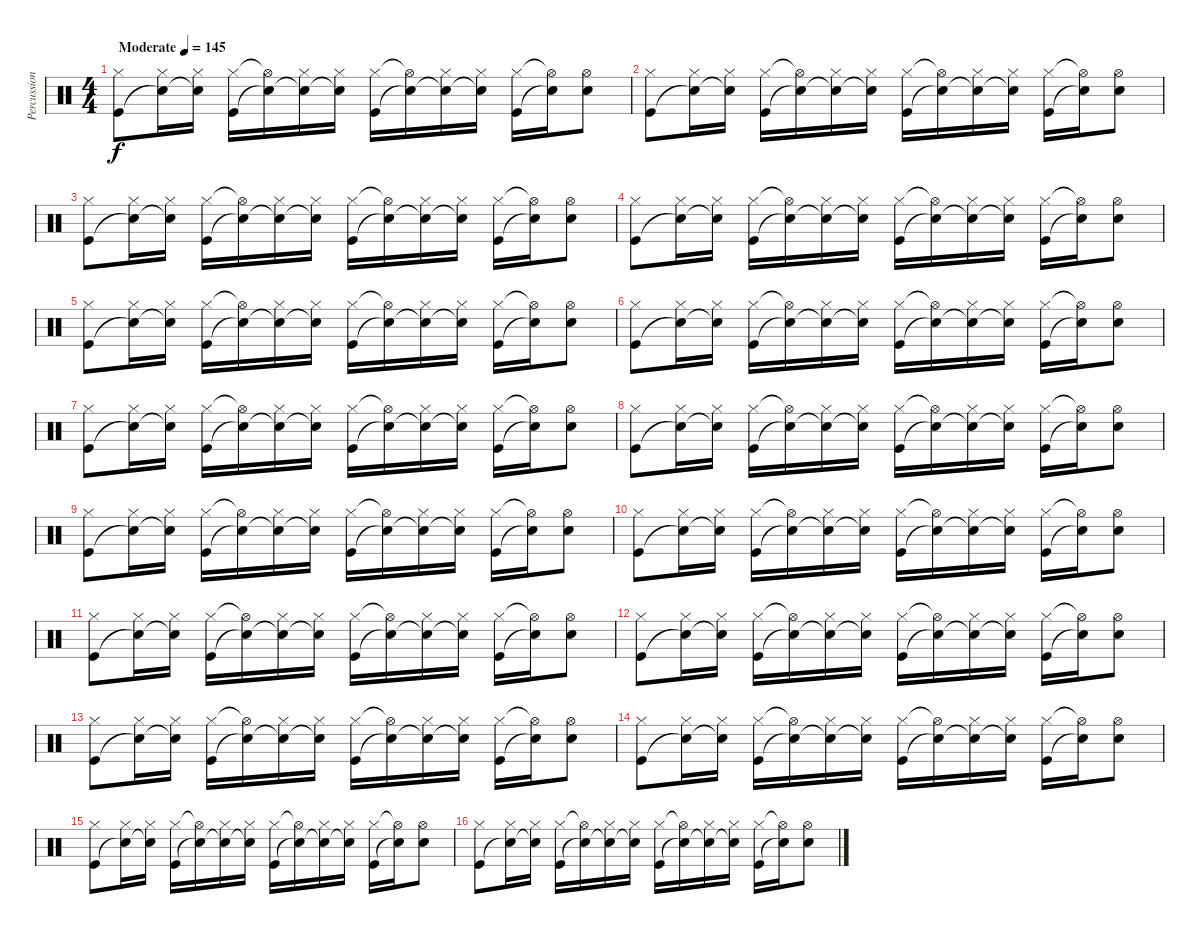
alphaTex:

\track ("Percussion" "Percussion") {instrument percussion}
\staff {score}
\articulation defaults
\ts (4 4)
\tempo (145 "Moderate")
\clef neutral
\ks c
("Hi-Hat (closed)" "Kick (hit)").8{dy f} ("Hi-Hat (closed)" "Snare (hit)"{t}).16 ("Hi-Hat (closed)" "Snare (hit)"{t}).16 ("Hi-Hat (closed)" "Kick (hit)").16 ("Hi-Hat (open)"{t} "Snare (hit)"{t}).16 ("Hi-Hat (closed)" "Snare (hit)"{t}).16 ("Hi-Hat (closed)" "Snare (hit)"{t}).16 ("Hi-Hat (closed)" "Kick (hit)").16 ("Hi-Hat (open)"{t} "Snare (hit)"{t}).16 ("Hi-Hat (closed)" "Snare (hit)"{t}).16 ("Hi-Hat (closed)" "Snare (hit)"{t}).16 ("Hi-Hat (closed)" "Kick (hit)").16 ("Hi-Hat (open)"{t} "Snare (hit)"{t}).16 ("Hi-Hat (open)" "Electric Snare (hit)").8 |
("Hi-Hat (closed)" "Kick (hit)").8 ("Hi-Hat (closed)" "Snare (hit)"{t}).16 ("Hi-Hat (closed)" "Snare (hit)"{t}).16 ("Hi-Hat (closed)" "Kick (hit)").16 ("Hi-Hat (open)"{t} "Snare (hit)"{t}).16 ("Hi-Hat (closed)" "Snare (hit)"{t}).16 ("Hi-Hat (closed)" "Snare (hit)"{t}).16 ("Hi-Hat (closed)" "Kick (hit)").16 ("Hi-Hat (open)"{t} "Snare (hit)"{t}).16 ("Hi-Hat (closed)" "Snare (hit)"{t}).16 ("Hi-Hat (closed)" "Snare (hit)"{t}).16 ("Hi-Hat (closed)" "Kick (hit)").16 ("Hi-Hat (open)"{t} "Snare (hit)"{t}).16 ("Hi-Hat (open)" "Electric Snare (hit)").8 |
("Hi-Hat (closed)" "Kick (hit)").8 ("Hi-Hat (closed)" "Snare (hit)"{t}).16 ("Hi-Hat (closed)" "Snare (hit)"{t}).16 ("Hi-Hat (closed)" "Kick (hit)").16 ("Hi-Hat (open)"{t} "Snare (hit)"{t}).16 ("Hi-Hat (closed)" "Snare (hit)"{t}).16 ("Hi-Hat (closed)" "Snare (hit)"{t}).16 ("Hi-Hat (closed)" "Kick (hit)").16 ("Hi-Hat (open)"{t} "Snare (hit)"{t}).16 ("Hi-Hat (closed)" "Snare (hit)"{t}).16 ("Hi-Hat (closed)" "Snare (hit)"{t}).16 ("Hi-Hat (closed)" "Kick (hit)").16 ("Hi-Hat (open)"{t} "Snare (hit)"{t}).16 ("Hi-Hat (open)" "Electric Snare (hit)").8 |
("Hi-Hat (closed)" "Kick (hit)").8 ("Hi-Hat (closed)" "Snare (hit)"{t}).16 ("Hi-Hat (closed)" "Snare (hit)"{t}).16 ("Hi-Hat (closed)" "Kick (hit)").16 ("Hi-Hat (open)"{t} "Snare (hit)"{t}).16 ("Hi-Hat (closed)" "Snare (hit)"{t}).16 ("Hi-Hat (closed)" "Snare (hit)"{t}).16 ("Hi-Hat (closed)" "Kick (hit)").16 ("Hi-Hat (open)"{t} "Snare (hit)"{t}).16 ("Hi-Hat (closed)" "Snare (hit)"{t}).16 ("Hi-Hat (closed)" "Snare (hit)"{t}).16 ("Hi-Hat (closed)" "Kick (hit)").16 ("Hi-Hat (open)"{t} "Snare (hit)"{t}).16 ("Hi-Hat (open)" "Electric Snare (hit)").8 |
("Hi-Hat (closed)" "Kick (hit)").8 ("Hi-Hat (closed)" "Snare (hit)"{t}).16 ("Hi-Hat (closed)" "Snare (hit)"{t}).16 ("Hi-Hat (closed)" "Kick (hit)").16 ("Hi-Hat (open)"{t} "Snare (hit)"{t}).16 ("Hi-Hat (closed)" "Snare (hit)"{t}).16 ("Hi-Hat (closed)" "Snare (hit)"{t}).16 ("Hi-Hat (closed)" "Kick (hit)").16 ("Hi-Hat (open)"{t} "Snare (hit)"{t}).16 ("Hi-Hat (closed)" "Snare (hit)"{t}).16 ("Hi-Hat (closed)" "Snare (hit)"{t}).16 ("Hi-Hat (closed)" "Kick (hit)").16 ("Hi-Hat (open)"{t} "Snare (hit)"{t}).16 ("Hi-Hat (open)" "Electric Snare (hit)").8 |
("Hi-Hat (closed)" "Kick (hit)").8 ("Hi-Hat (closed)" "Snare (hit)"{t}).16 ("Hi-Hat (closed)" "Snare (hit)"{t}).16 ("Hi-Hat (closed)" "Kick (hit)").16 ("Hi-Hat (open)"{t} "Snare (hit)"{t}).16 ("Hi-Hat (closed)" "Snare (hit)"{t}).16 ("Hi-Hat (closed)" "Snare (hit)"{t}).16 ("Hi-Hat (closed)" "Kick (hit)").16 ("Hi-Hat (open)"{t} "Snare (hit)"{t}).16 ("Hi-Hat (closed)" "Snare (hit)"{t}).16 ("Hi-Hat (closed)" "Snare (hit)"{t}).16 ("Hi-Hat (closed)" "Kick (hit)").16 ("Hi-Hat (open)"{t} "Snare (hit)"{t}).16 ("Hi-Hat (open)" "Electric Snare (hit)").8 |
("Hi-Hat (closed)" "Kick (hit)").8 ("Hi-Hat (closed)" "Snare (hit)"{t}).16 ("Hi-Hat (closed)" "Snare (hit)"{t}).16 ("Hi-Hat (closed)" "Kick (hit)").16 ("Hi-Hat (open)"{t} "Snare (hit)"{t}).16 ("Hi-Hat (closed)" "Snare (hit)"{t}).16 ("Hi-Hat (closed)" "Snare (hit)"{t}).16 ("Hi-Hat (closed)" "Kick (hit)").16 ("Hi-Hat (open)"{t} "Snare (hit)"{t}).16 ("Hi-Hat (closed)" "Snare (hit)"{t}).16 ("Hi-Hat (closed)" "Snare (hit)"{t}).16 ("Hi-Hat (closed)" "Kick (hit)").16 ("Hi-Hat (open)"{t} "Snare (hit)"{t}).16 ("Hi-Hat (open)" "Electric Snare (hit)").8 |
("Hi-Hat (closed)" "Kick (hit)").8 ("Hi-Hat (closed)" "Snare (hit)"{t}).16 ("Hi-Hat (closed)" "Snare (hit)"{t}).16 ("Hi-Hat (closed)" "Kick (hit)").16 ("Hi-Hat (open)"{t} "Snare (hit)"{t}).16 ("Hi-Hat (closed)" "Snare (hit)"{t}).16 ("Hi-Hat (closed)" "Snare (hit)"{t}).16 ("Hi-Hat (closed)" "Kick (hit)").16 ("Hi-Hat (open)"{t} "Snare (hit)"{t}).16 ("Hi-Hat (closed)" "Snare (hit)"{t}).16 ("Hi-Hat (closed)" "Snare (hit)"{t}).16 ("Hi-Hat (closed)" "Kick (hit)").16 ("Hi-Hat (open)"{t} "Snare (hit)"{t}).16 ("Hi-Hat (open)" "Electric Snare (hit)").8 |
("Hi-Hat (closed)" "Kick (hit)").8 ("Hi-Hat (closed)" "Snare (hit)"{t}).16 ("Hi-Hat (closed)" "Snare (hit)"{t}).16 ("Hi-Hat (closed)" "Kick (hit)").16 ("Hi-Hat (open)"{t} "Snare (hit)"{t}).16 ("Hi-Hat (closed)" "Snare (hit)"{t}).16 ("Hi-Hat (closed)" "Snare (hit)"{t}).16 ("Hi-Hat (closed)" "Kick (hit)").16 ("Hi-Hat (open)"{t} "Snare (hit)"{t}).16 ("Hi-Hat (closed)" "Snare (hit)"{t}).16 ("Hi-Hat (closed)" "Snare (hit)"{t}).16 ("Hi-Hat (closed)" "Kick (hit)").16 ("Hi-Hat (open)"{t} "Snare (hit)"{t}).16 ("Hi-Hat (open)" "Electric Snare (hit)").8 |
("Hi-Hat (closed)" "Kick (hit)").8 ("Hi-Hat (closed)" "Snare (hit)"{t}).16 ("Hi-Hat (closed)" "Snare (hit)"{t}).16 ("Hi-Hat (closed)" "Kick (hit)").16 ("Hi-Hat (open)"{t} "Snare (hit)"{t}).16 ("Hi-Hat (closed)" "Snare (hit)"{t}).16 ("Hi-Hat (closed)" "Snare (hit)"{t}).16 ("Hi-Hat (closed)" "Kick (hit)").16 ("Hi-Hat (open)"{t} "Snare (hit)"{t}).16 ("Hi-Hat (closed)" "Snare (hit)"{t}).16 ("Hi-Hat (closed)" "Snare (hit)"{t}).16 ("Hi-Hat (closed)" "Kick (hit)").16 ("Hi-Hat (open)"{t} "Snare (hit)"{t}).16 ("Hi-Hat (open)" "Electric Snare (hit)").8 |
("Hi-Hat (closed)" "Kick (hit)").8 ("Hi-Hat (closed)" "Snare (hit)"{t}).16 ("Hi-Hat (closed)" "Snare (hit)"{t}).16 ("Hi-Hat (closed)" "Kick (hit)").16 ("Hi-Hat (open)"{t} "Snare (hit)"{t}).16 ("Hi-Hat (closed)" "Snare (hit)"{t}).16 ("Hi-Hat (closed)" "Snare (hit)"{t}).16 ("Hi-Hat (closed)" "Kick (hit)").16 ("Hi-Hat (open)"{t} "Snare (hit)"{t}).16 ("Hi-Hat (closed)" "Snare (hit)"{t}).16 ("Hi-Hat (closed)" "Snare (hit)"{t}).16 ("Hi-Hat (closed)" "Kick (hit)").16 ("Hi-Hat (open)"{t} "Snare (hit)"{t}).16 ("Hi-Hat (open)" "Electric Snare (hit)").8 |
("Hi-Hat (closed)" "Kick (hit)").8 ("Hi-Hat (closed)" "Snare (hit)"{t}).16 ("Hi-Hat (closed)" "Snare (hit)"{t}).16 ("Hi-Hat (closed)" "Kick (hit)").16 ("Hi-Hat (open)"{t} "Snare (hit)"{t}).16 ("Hi-Hat (closed)" "Snare (hit)"{t}).16 ("Hi-Hat (closed)" "Snare (hit)"{t}).16 ("Hi-Hat (closed)" "Kick (hit)").16 ("Hi-Hat (open)"{t} "Snare (hit)"{t}).16 ("Hi-Hat (closed)" "Snare (hit)"{t}).16 ("Hi-Hat (closed)" "Snare (hit)"{t}).16 ("Hi-Hat (closed)" "Kick (hit)").16 ("Hi-Hat (open)"{t} "Snare (hit)"{t}).16 ("Hi-Hat (open)" "Electric Snare (hit)").8 |
("Hi-Hat (closed)" "Kick (hit)").8 ("Hi-Hat (closed)" "Snare (hit)"{t}).16 ("Hi-Hat (closed)" "Snare (hit)"{t}).16 ("Hi-Hat (closed)" "Kick (hit)").16 ("Hi-Hat (open)"{t} "Snare (hit)"{t}).16 ("Hi-Hat (closed)" "Snare (hit)"{t}).16 ("Hi-Hat (closed)" "Snare (hit)"{t}).16 ("Hi-Hat (closed)" "Kick (hit)").16 ("Hi-Hat (open)"{t} "Snare (hit)"{t}).16 ("Hi-Hat (closed)" "Snare (hit)"{t}).16 ("Hi-Hat (closed)" "Snare (hit)"{t}).16 ("Hi-Hat (closed)" "Kick (hit)").16 ("Hi-Hat (open)"{t} "Snare (hit)"{t}).16 ("Hi-Hat (open)" "Electric Snare (hit)").8 |
("Hi-Hat (closed)" "Kick (hit)").8 ("Hi-Hat (closed)" "Snare (hit)"{t}).16 ("Hi-Hat (closed)" "Snare (hit)"{t}).16 ("Hi-Hat (closed)" "Kick (hit)").16 ("Hi-Hat (open)"{t} "Snare (hit)"{t}).16 ("Hi-Hat (closed)" "Snare (hit)"{t}).16 ("Hi-Hat (closed)" "Snare (hit)"{t}).16 ("Hi-Hat (closed)" "Kick (hit)").16 ("Hi-Hat (open)"{t} "Snare (hit)"{t}).16 ("Hi-Hat (closed)" "Snare (hit)"{t}).16 ("Hi-Hat (closed)" "Snare (hit)"{t}).16 ("Hi-Hat (closed)" "Kick (hit)").16 ("Hi-Hat (open)"{t} "Snare (hit)"{t}).16 ("Hi-Hat (open)" "Electric Snare (hit)").8 |
("Hi-Hat (closed)" "Kick (hit)").8 ("Hi-Hat (closed)" "Snare (hit)"{t}).16 ("Hi-Hat (closed)" "Snare (hit)"{t}).16 ("Hi-Hat (closed)" "Kick (hit)").16 ("Hi-Hat (open)"{t} "Snare (hit)"{t}).16 ("Hi-Hat (closed)" "Snare (hit)"{t}).16 ("Hi-Hat (closed)" "Snare (hit)"{t}).16 ("Hi-Hat (closed)" "Kick (hit)").16 ("Hi-Hat (open)"{t} "Snare (hit)"{t}).16 ("Hi-Hat (closed)" "Snare (hit)"{t}).16 ("Hi-Hat (closed)" "Snare (hit)"{t}).16 ("Hi-Hat (closed)" "Kick (hit)").16 ("Hi-Hat (open)"{t} "Snare (hit)"{t}).16 ("Hi-Hat (open)" "Electric Snare (hit)").8 |
("Hi-Hat (closed)" "Kick (hit)").8 ("Hi-Hat (closed)" "Snare (hit)"{t}).16 ("Hi-Hat (closed)" "Snare (hit)"{t}).16 ("Hi-Hat (closed)" "Kick (hit)").16 ("Hi-Hat (open)"{t} "Snare (hit)"{t}).16 ("Hi-Hat (closed)" "Snare (hit)"{t}).16 ("Hi-Hat (closed)" "Snare (hit)"{t}).16 ("Hi-Hat (closed)" "Kick (hit)").16 ("Hi-Hat (open)"{t} "Snare (hit)"{t}).16 ("Hi-Hat (closed)" "Snare (hit)"{t}).16 ("Hi-Hat (closed)" "Snare (hit)"{t}).16 ("Hi-Hat (closed)" "Kick (hit)").16 ("Hi-Hat (open)"{t} "Snare (hit)"{t}).16 ("Hi-Hat (open)" "Electric Snare (hit)").8
